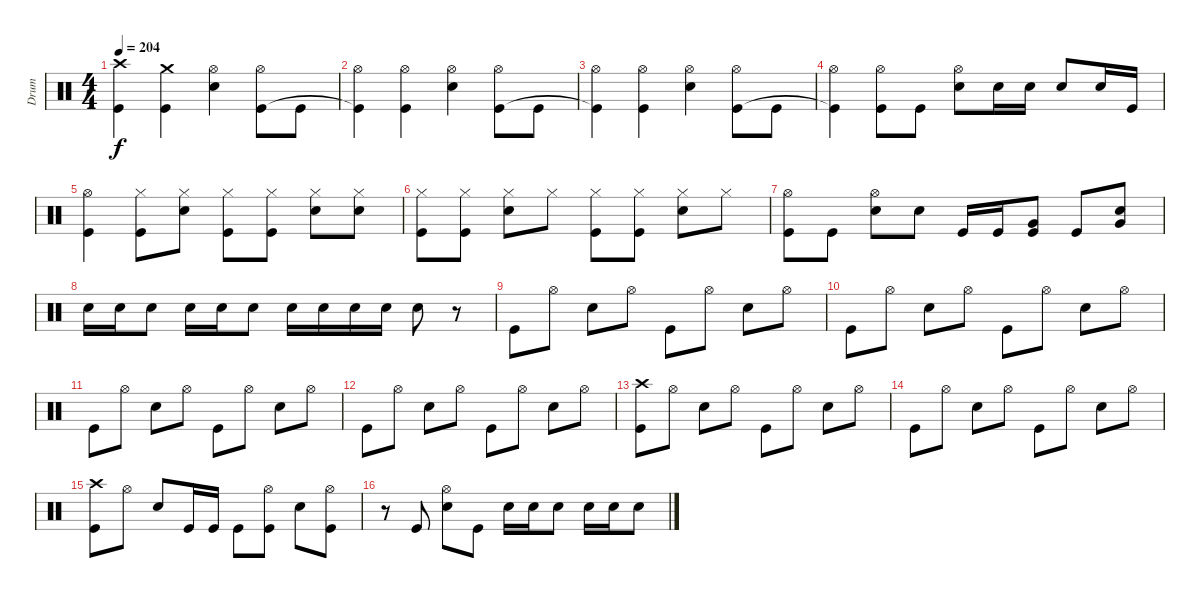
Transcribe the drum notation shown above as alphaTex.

\track ("Drum" "Drum") {instrument percussion}
\staff {score}
\articulation defaults
\ts (4 4)
\tempo 204
\clef neutral
\ks c
("Crash high (hit)" "Kick (hit)").4{dy f} ("Crash medium (hit)" "Kick (hit)").4 ("Hi-Hat (open)" "Snare (hit) 2").4 ("Hi-Hat (open)" "Kick (hit)").8 "Kick (hit)".8 |
("Hi-Hat (open)" "Kick (hit)"{t}).4 ("Hi-Hat (open)" "Kick (hit)").4 ("Hi-Hat (open)" "Snare (hit) 2").4 ("Hi-Hat (open)" "Kick (hit)").8 "Kick (hit)".8 |
("Hi-Hat (open)" "Kick (hit)"{t}).4 ("Hi-Hat (open)" "Kick (hit)").4 ("Hi-Hat (open)" "Snare (hit) 2").4 ("Hi-Hat (open)" "Kick (hit)").8 "Kick (hit)".8 |
("Hi-Hat (open)" "Kick (hit)"{t}).4 ("Hi-Hat (open)" "Kick (hit)").8 "Kick (hit)".8 ("Hi-Hat (open)" "Snare (hit) 2").8 "Snare (hit) 2".16 "Snare (hit) 2".16 "Snare (hit) 2".8 "Snare (hit) 2".16 "Kick (hit)".16 |
("Hi-Hat (open)" "Kick (hit)").4 ("Hi-Hat (closed)" "Kick (hit)").8 ("Hi-Hat (closed)" "Snare (hit) 2").8 ("Hi-Hat (closed)" "Kick (hit)").8 ("Hi-Hat (closed)" "Kick (hit)").8 ("Hi-Hat (closed)" "Snare (hit) 2").8 ("Hi-Hat (closed)" "Snare (hit) 2").8 |
("Hi-Hat (closed)" "Kick (hit)").8 ("Hi-Hat (closed)" "Kick (hit)").8 ("Hi-Hat (closed)" "Snare (hit) 2").8 "Hi-Hat (closed)".8 ("Hi-Hat (closed)" "Kick (hit)").8 ("Hi-Hat (closed)" "Kick (hit)").8 ("Hi-Hat (closed)" "Snare (hit) 2").8 "Hi-Hat (closed)".8 |
("Hi-Hat (open)" "Kick (hit)").8 "Kick (hit)".8 ("Hi-Hat (open)" "Snare (hit) 2").8 "Snare (hit) 2".8 "Kick (hit)".16 "Kick (hit)".16 ("Very Low Tom (hit)" "Kick (hit)").8 "Kick (hit)".8 ("Snare (hit) 2" "Very Low Tom (hit)").8 |
"Snare (hit) 2".16 "Snare (hit) 2".16 "Snare (hit) 2".8 "Snare (hit) 2".16 "Snare (hit) 2".16 "Snare (hit) 2".8 "Snare (hit) 2".16 "Snare (hit) 2".16 "Snare (hit) 2".16 "Snare (hit) 2".16 "Snare (hit) 2".8 r.8 |
"Kick (hit)".8 "Hi-Hat (open)".8 "Snare (hit) 2".8 "Hi-Hat (open)".8 "Kick (hit)".8 "Hi-Hat (open)".8 "Snare (hit) 2".8 "Hi-Hat (open)".8 |
"Kick (hit)".8 "Hi-Hat (open)".8 "Snare (hit) 2".8 "Hi-Hat (open)".8 "Kick (hit)".8 "Hi-Hat (open)".8 "Snare (hit) 2".8 "Hi-Hat (open)".8 |
"Kick (hit)".8 "Hi-Hat (open)".8 "Snare (hit) 2".8 "Hi-Hat (open)".8 "Kick (hit)".8 "Hi-Hat (open)".8 "Snare (hit) 2".8 "Hi-Hat (open)".8 |
"Kick (hit)".8 "Hi-Hat (open)".8 "Snare (hit) 2".8 "Hi-Hat (open)".8 "Kick (hit)".8 "Hi-Hat (open)".8 "Snare (hit) 2".8 "Hi-Hat (open)".8 |
("Crash high (hit)" "Kick (hit)").8 "Hi-Hat (open)".8 "Snare (hit) 2".8 "Hi-Hat (open)".8 "Kick (hit)".8 "Hi-Hat (open)".8 "Snare (hit) 2".8 "Hi-Hat (open)".8 |
"Kick (hit)".8 "Hi-Hat (open)".8 "Snare (hit) 2".8 "Hi-Hat (open)".8 "Kick (hit)".8 "Hi-Hat (open)".8 "Snare (hit) 2".8 "Hi-Hat (open)".8 |
("Crash high (hit)" "Kick (hit)").8 "Hi-Hat (open)".8 "Snare (hit) 2".8 "Kick (hit)".16 "Kick (hit)".16 "Kick (hit)".8 ("Hi-Hat (open)" "Kick (hit)").8 "Snare (hit) 2".8 ("Hi-Hat (open)" "Kick (hit)").8 |
r.8 "Kick (hit)".8 ("Hi-Hat (open)" "Snare (hit) 2").8 "Kick (hit)".8 "Snare (hit) 2".16 "Snare (hit) 2".16 "Snare (hit) 2".8 "Snare (hit) 2".16 "Snare (hit) 2".16 "Snare (hit) 2".8
